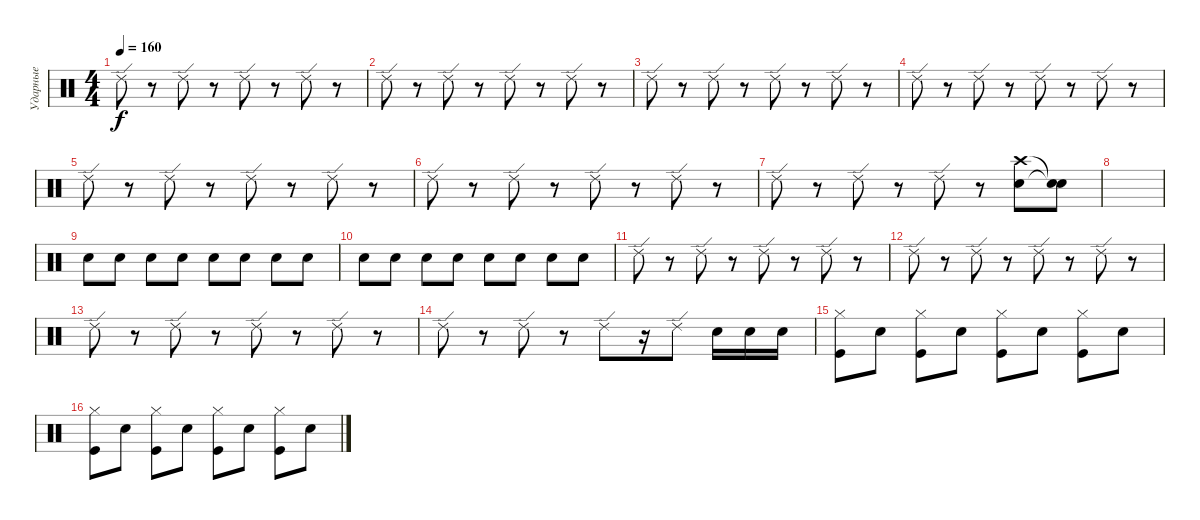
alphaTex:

\track ("Ударные" "Ударные") {instrument percussion}
\staff {score}
\articulation defaults
\ts (4 4)
\tempo 160
\clef neutral
\ks c "Ride (edge) 2".8{dy f}
r.8 "Ride (edge) 2".8 r.8 "Ride (edge) 2".8 r.8 "Ride (edge) 2".8 r.8 |
"Ride (edge) 2".8 r.8 "Ride (edge) 2".8 r.8 "Ride (edge) 2".8 r.8 "Ride (edge) 2".8 r.8 |
"Ride (edge) 2".8 r.8 "Ride (edge) 2".8 r.8 "Ride (edge) 2".8 r.8 "Ride (edge) 2".8 r.8 |
"Ride (edge) 2".8 r.8 "Ride (edge) 2".8 r.8 "Ride (edge) 2".8 r.8 "Ride (edge) 2".8 r.8 |
"Ride (edge) 2".8 r.8 "Ride (edge) 2".8 r.8 "Ride (edge) 2".8 r.8 "Ride (edge) 2".8 r.8 |
"Ride (edge) 2".8 r.8 "Ride (edge) 2".8 r.8 "Ride (edge) 2".8 r.8 "Ride (edge) 2".8 r.8 |
"Ride (edge) 2".8 r.8 "Ride (edge) 2".8 r.8 "Ride (edge) 2".8 r.8 ("Electric Snare (hit)" "Crash high (hit)").8 ("Snare (hit)"{t} "Snare (hit)"{t}).8 |
|
"Electric Snare (hit)".8 "Electric Snare (hit)".8 "Electric Snare (hit)".8 "Electric Snare (hit)".8 "Electric Snare (hit)".8 "Electric Snare (hit)".8 "Electric Snare (hit)".8 "Electric Snare (hit)".8 |
"Electric Snare (hit)".8 "Electric Snare (hit)".8 "Electric Snare (hit)".8 "Electric Snare (hit)".8 "Electric Snare (hit)".8 "Electric Snare (hit)".8 "Electric Snare (hit)".8 "Electric Snare (hit)".8 |
"Ride (edge) 2".8 r.8 "Ride (edge) 2".8 r.8 "Ride (edge) 2".8 r.8 "Ride (edge) 2".8 r.8 |
"Ride (edge) 2".8 r.8 "Ride (edge) 2".8 r.8 "Ride (edge) 2".8 r.8 "Ride (edge) 2".8 r.8 |
"Ride (edge) 2".8 r.8 "Ride (edge) 2".8 r.8 "Ride (edge) 2".8 r.8 "Ride (edge) 2".8 r.8 |
"Ride (edge) 2".8 r.8 "Ride (edge) 2".8 r.8 "Ride (edge) 2".8 r.16 "Ride (edge) 2".8 "Electric Snare (hit)".16 "Electric Snare (hit)".16 "Electric Snare (hit)".16 |
("Hi-Hat (closed)" "Kick (hit)").8 "Snare (hit) 2".8 ("Hi-Hat (closed)" "Kick (hit)").8 "Snare (hit) 2".8 ("Hi-Hat (closed)" "Kick (hit)").8 "Snare (hit) 2".8 ("Hi-Hat (closed)" "Kick (hit)").8 "Snare (hit) 2".8 |
("Hi-Hat (closed)" "Kick (hit)").8 "Snare (hit) 2".8 ("Hi-Hat (closed)" "Kick (hit)").8 "Snare (hit) 2".8 ("Hi-Hat (closed)" "Kick (hit)").8 "Snare (hit) 2".8 ("Hi-Hat (closed)" "Kick (hit)").8 "Snare (hit) 2".8
